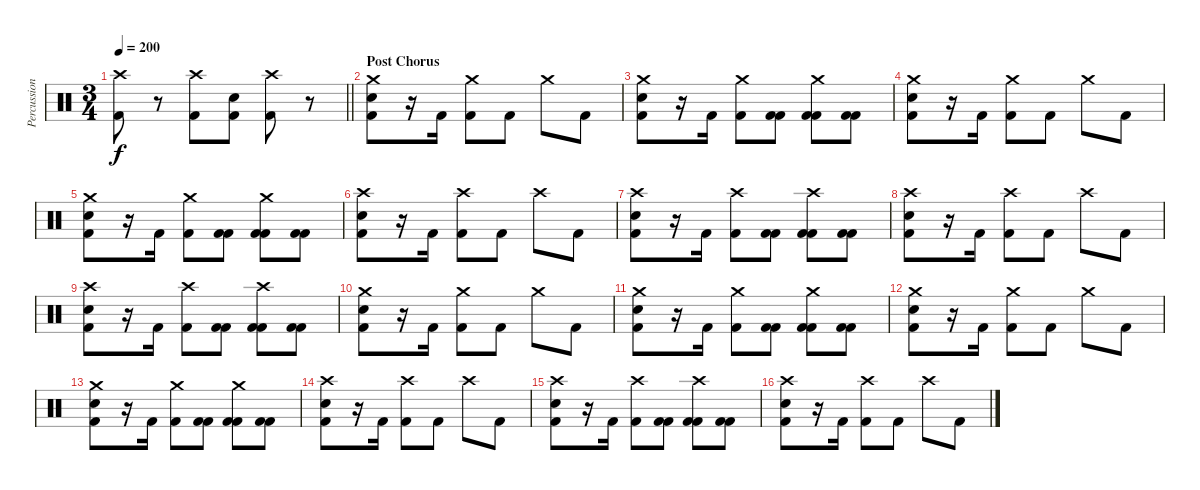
\track ("Percussion" "Percussion") {instrument percussion}
\staff {score}
\articulation defaults
\ts (3 4)
\tempo 200
\clef neutral
\barLineRight lightlight
\ks c
("Crash high (hit)" "Kick (hit) 2").8{dy f} r.8 ("Crash high (hit)" "Kick (hit) 2").8 ("Electric Snare (hit)" "Kick (hit) 2").8 ("Crash high (hit)" "Kick (hit) 2").8 r.8 |
\section ("" "Post Chorus")
("Crash medium (hit)" "Electric Snare (hit)" "Kick (hit) 2").8 r.16 "Kick (hit) 2".16 ("Crash medium (hit)" "Kick (hit) 2").8 "Kick (hit) 2".8 "Crash medium (hit)".8 "Kick (hit) 2".8 |
("Crash medium (hit)" "Electric Snare (hit)" "Kick (hit) 2").8 r.16 "Kick (hit) 2".16 ("Crash medium (hit)" "Kick (hit) 2").8 ("Kick (hit) 2" "Kick (hit) 2").8 ("Crash medium (hit)" "Kick (hit) 2" "Kick (hit) 2").8 ("Kick (hit) 2" "Kick (hit) 2").8 |
("Crash medium (hit)" "Electric Snare (hit)" "Kick (hit) 2").8 r.16 "Kick (hit) 2".16 ("Crash medium (hit)" "Kick (hit) 2").8 "Kick (hit) 2".8 "Crash medium (hit)".8 "Kick (hit) 2".8 |
("Crash medium (hit)" "Electric Snare (hit)" "Kick (hit) 2").8 r.16 "Kick (hit) 2".16 ("Crash medium (hit)" "Kick (hit) 2").8 ("Kick (hit) 2" "Kick (hit) 2").8 ("Crash medium (hit)" "Kick (hit) 2" "Kick (hit) 2").8 ("Kick (hit) 2" "Kick (hit) 2").8 |
("Crash high (hit)" "Electric Snare (hit)" "Kick (hit) 2").8 r.16 "Kick (hit) 2".16 ("Crash high (hit)" "Kick (hit) 2").8 "Kick (hit) 2".8 "Crash high (hit)".8 "Kick (hit) 2".8 |
("Crash high (hit)" "Electric Snare (hit)" "Kick (hit) 2").8 r.16 "Kick (hit) 2".16 ("Crash high (hit)" "Kick (hit) 2").8 ("Kick (hit) 2" "Kick (hit) 2").8 ("Crash high (hit)" "Kick (hit) 2" "Kick (hit) 2").8 ("Kick (hit) 2" "Kick (hit) 2").8 |
("Crash high (hit)" "Electric Snare (hit)" "Kick (hit) 2").8 r.16 "Kick (hit) 2".16 ("Crash high (hit)" "Kick (hit) 2").8 "Kick (hit) 2".8 "Crash high (hit)".8 "Kick (hit) 2".8 |
("Crash high (hit)" "Electric Snare (hit)" "Kick (hit) 2").8 r.16 "Kick (hit) 2".16 ("Crash high (hit)" "Kick (hit) 2").8 ("Kick (hit) 2" "Kick (hit) 2").8 ("Crash high (hit)" "Kick (hit) 2" "Kick (hit) 2").8 ("Kick (hit) 2" "Kick (hit) 2").8 |
("Crash medium (hit)" "Electric Snare (hit)" "Kick (hit) 2").8 r.16 "Kick (hit) 2".16 ("Crash medium (hit)" "Kick (hit) 2").8 "Kick (hit) 2".8 "Crash medium (hit)".8 "Kick (hit) 2".8 |
("Crash medium (hit)" "Electric Snare (hit)" "Kick (hit) 2").8 r.16 "Kick (hit) 2".16 ("Crash medium (hit)" "Kick (hit) 2").8 ("Kick (hit) 2" "Kick (hit) 2").8 ("Crash medium (hit)" "Kick (hit) 2" "Kick (hit) 2").8 ("Kick (hit) 2" "Kick (hit) 2").8 |
("Crash medium (hit)" "Electric Snare (hit)" "Kick (hit) 2").8 r.16 "Kick (hit) 2".16 ("Crash medium (hit)" "Kick (hit) 2").8 "Kick (hit) 2".8 "Crash medium (hit)".8 "Kick (hit) 2".8 |
("Crash medium (hit)" "Electric Snare (hit)" "Kick (hit) 2").8 r.16 "Kick (hit) 2".16 ("Crash medium (hit)" "Kick (hit) 2").8 ("Kick (hit) 2" "Kick (hit) 2").8 ("Crash medium (hit)" "Kick (hit) 2" "Kick (hit) 2").8 ("Kick (hit) 2" "Kick (hit) 2").8 |
("Crash high (hit)" "Electric Snare (hit)" "Kick (hit) 2").8 r.16 "Kick (hit) 2".16 ("Crash high (hit)" "Kick (hit) 2").8 "Kick (hit) 2".8 "Crash high (hit)".8 "Kick (hit) 2".8 |
("Crash high (hit)" "Electric Snare (hit)" "Kick (hit) 2").8 r.16 "Kick (hit) 2".16 ("Crash high (hit)" "Kick (hit) 2").8 ("Kick (hit) 2" "Kick (hit) 2").8 ("Crash high (hit)" "Kick (hit) 2" "Kick (hit) 2").8 ("Kick (hit) 2" "Kick (hit) 2").8 |
("Crash high (hit)" "Electric Snare (hit)" "Kick (hit) 2").8 r.16 "Kick (hit) 2".16 ("Crash high (hit)" "Kick (hit) 2").8 "Kick (hit) 2".8 "Crash high (hit)".8 "Kick (hit) 2".8
